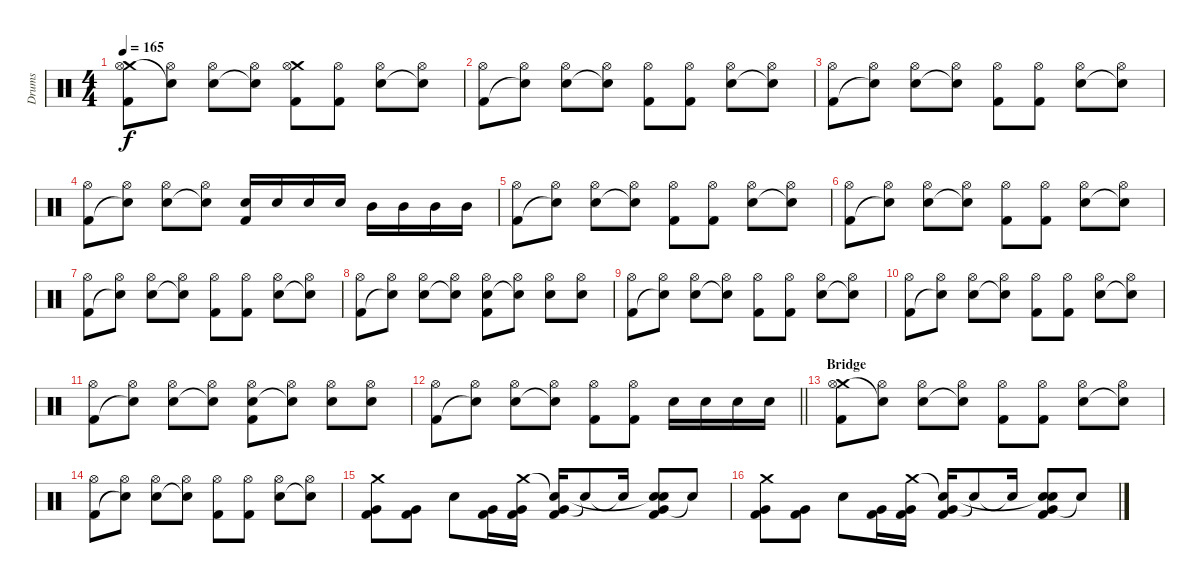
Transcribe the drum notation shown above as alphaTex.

\track ("Drums" "Drums") {instrument percussion}
\staff {score}
\articulation defaults
\ts (4 4)
\tempo 165
\clef neutral
\ks c
("Crash medium (hit)" "Hi-Hat (open)" "Kick (hit) 2").8{dy f} ("Hi-Hat (open)" "Snare (hit)"{t}).8 ("Hi-Hat (open)" "Electric Snare (hit)").8 ("Hi-Hat (open)" "Snare (hit)"{t}).8 ("Crash medium (hit)" "Hi-Hat (open)" "Kick (hit) 2").8 ("Hi-Hat (open)" "Kick (hit) 2").8 ("Hi-Hat (open)" "Electric Snare (hit)").8 ("Hi-Hat (open)" "Snare (hit)"{t}).8 |
("Hi-Hat (open)" "Kick (hit) 2").8 ("Hi-Hat (open)" "Snare (hit)"{t}).8 ("Hi-Hat (open)" "Electric Snare (hit)").8 ("Hi-Hat (open)" "Snare (hit)"{t}).8 ("Hi-Hat (open)" "Kick (hit) 2").8 ("Hi-Hat (open)" "Kick (hit) 2").8 ("Hi-Hat (open)" "Electric Snare (hit)").8 ("Hi-Hat (open)" "Snare (hit)"{t}).8 |
("Hi-Hat (open)" "Kick (hit) 2").8 ("Hi-Hat (open)" "Snare (hit)"{t}).8 ("Hi-Hat (open)" "Electric Snare (hit)").8 ("Hi-Hat (open)" "Snare (hit)"{t}).8 ("Hi-Hat (open)" "Kick (hit) 2").8 ("Hi-Hat (open)" "Kick (hit) 2").8 ("Hi-Hat (open)" "Electric Snare (hit)").8 ("Hi-Hat (open)" "Snare (hit)"{t}).8 |
("Hi-Hat (open)" "Kick (hit) 2").8 ("Hi-Hat (open)" "Snare (hit)"{t}).8 ("Hi-Hat (open)" "Electric Snare (hit)").8 ("Hi-Hat (open)" "Snare (hit)"{t}).8 ("Electric Snare (hit)" "Kick (hit) 2").16 "Electric Snare (hit)".16 "Electric Snare (hit)".16 "Electric Snare (hit)".16 "Mid Tom (hit)".16 "Mid Tom (hit)".16 "Mid Tom (hit)".16 "Mid Tom (hit)".16 |
("Hi-Hat (open)" "Kick (hit) 2").8 ("Hi-Hat (open)" "Snare (hit)"{t}).8 ("Hi-Hat (open)" "Electric Snare (hit)").8 ("Hi-Hat (open)" "Snare (hit)"{t}).8 ("Hi-Hat (open)" "Kick (hit) 2").8 ("Hi-Hat (open)" "Kick (hit) 2").8 ("Hi-Hat (open)" "Electric Snare (hit)").8 ("Hi-Hat (open)" "Snare (hit)"{t}).8 |
("Hi-Hat (open)" "Kick (hit) 2").8 ("Hi-Hat (open)" "Snare (hit)"{t}).8 ("Hi-Hat (open)" "Electric Snare (hit)").8 ("Hi-Hat (open)" "Snare (hit)"{t}).8 ("Hi-Hat (open)" "Kick (hit) 2").8 ("Hi-Hat (open)" "Kick (hit) 2").8 ("Hi-Hat (open)" "Electric Snare (hit)").8 ("Hi-Hat (open)" "Snare (hit)"{t}).8 |
("Hi-Hat (open)" "Kick (hit) 2").8 ("Hi-Hat (open)" "Snare (hit)"{t}).8 ("Hi-Hat (open)" "Electric Snare (hit)").8 ("Hi-Hat (open)" "Snare (hit)"{t}).8 ("Hi-Hat (open)" "Kick (hit) 2").8 ("Hi-Hat (open)" "Kick (hit) 2").8 ("Hi-Hat (open)" "Electric Snare (hit)").8 ("Hi-Hat (open)" "Snare (hit)"{t}).8 |
("Hi-Hat (open)" "Kick (hit) 2").8 ("Hi-Hat (open)" "Snare (hit)"{t}).8 ("Hi-Hat (open)" "Electric Snare (hit)").8 ("Hi-Hat (open)" "Snare (hit)"{t}).8 ("Hi-Hat (open)" "Electric Snare (hit)" "Kick (hit) 2").8 ("Hi-Hat (open)" "Electric Snare (hit)"{t}).8 ("Hi-Hat (open)" "Electric Snare (hit)").8 ("Hi-Hat (open)" "Electric Snare (hit)").8 |
("Hi-Hat (open)" "Kick (hit) 2").8 ("Hi-Hat (open)" "Snare (hit)"{t}).8 ("Hi-Hat (open)" "Electric Snare (hit)").8 ("Hi-Hat (open)" "Snare (hit)"{t}).8 ("Hi-Hat (open)" "Kick (hit) 2").8 ("Hi-Hat (open)" "Kick (hit) 2").8 ("Hi-Hat (open)" "Electric Snare (hit)").8 ("Hi-Hat (open)" "Snare (hit)"{t}).8 |
("Hi-Hat (open)" "Kick (hit) 2").8 ("Hi-Hat (open)" "Snare (hit)"{t}).8 ("Hi-Hat (open)" "Electric Snare (hit)").8 ("Hi-Hat (open)" "Snare (hit)"{t}).8 ("Hi-Hat (open)" "Kick (hit) 2").8 ("Hi-Hat (open)" "Kick (hit) 2").8 ("Hi-Hat (open)" "Electric Snare (hit)").8 ("Hi-Hat (open)" "Snare (hit)"{t}).8 |
("Hi-Hat (open)" "Kick (hit) 2").8 ("Hi-Hat (open)" "Snare (hit)"{t}).8 ("Hi-Hat (open)" "Electric Snare (hit)").8 ("Hi-Hat (open)" "Snare (hit)"{t}).8 ("Hi-Hat (open)" "Electric Snare (hit)" "Kick (hit) 2").8 ("Hi-Hat (open)" "Electric Snare (hit)"{t}).8 ("Hi-Hat (open)" "Electric Snare (hit)").8 ("Hi-Hat (open)" "Electric Snare (hit)").8 |
\barLineRight lightlight
("Hi-Hat (open)" "Kick (hit) 2").8 ("Hi-Hat (open)" "Snare (hit)"{t}).8 ("Hi-Hat (open)" "Electric Snare (hit)").8 ("Hi-Hat (open)" "Snare (hit)"{t}).8 ("Hi-Hat (open)" "Kick (hit) 2").8 ("Hi-Hat (open)" "Kick (hit) 2").8 "Electric Snare (hit)".16 "Electric Snare (hit)".16 "Electric Snare (hit)".16 "Electric Snare (hit)".16 |
\section ("" "Bridge")
("Crash medium (hit)" "Hi-Hat (open)" "Kick (hit) 2").8 ("Hi-Hat (open)" "Snare (hit)"{t}).8 ("Hi-Hat (open)" "Electric Snare (hit)").8 ("Hi-Hat (open)" "Snare (hit)"{t}).8 ("Hi-Hat (open)" "Kick (hit) 2").8 ("Hi-Hat (open)" "Kick (hit) 2").8 ("Hi-Hat (open)" "Electric Snare (hit)").8 ("Hi-Hat (open)" "Snare (hit)"{t}).8 |
("Hi-Hat (open)" "Kick (hit) 2").8 ("Hi-Hat (open)" "Snare (hit)"{t}).8 ("Hi-Hat (open)" "Electric Snare (hit)").8 ("Hi-Hat (open)" "Snare (hit)"{t}).8 ("Hi-Hat (open)" "Kick (hit) 2").8 ("Hi-Hat (open)" "Kick (hit) 2").8 ("Hi-Hat (open)" "Electric Snare (hit)").8 ("Hi-Hat (open)" "Snare (hit)"{t}).8 |
("Very Low Tom (hit)" "Crash medium (hit)" "Kick (hit) 2").8 ("Very Low Tom (hit)" "Kick (hit) 2").8 "Electric Snare (hit)".8 ("Very Low Tom (hit)" "Kick (hit) 2").16 ("Very Low Tom (hit)" "Crash medium (hit)" "Kick (hit) 2").16 ("Very Low Tom (hit)" "Snare (hit)"{t} "Kick (hit) 2").16 "Snare (hit)"{t}.8 "Snare (hit)"{t}.16 ("Very Low Tom (hit)" "Snare (hit)"{t} "Electric Snare (hit)" "Kick (hit) 2").8 "Snare (hit)"{t}.8 |
("Very Low Tom (hit)" "Crash medium (hit)" "Kick (hit) 2").8 ("Very Low Tom (hit)" "Kick (hit) 2").8 "Electric Snare (hit)".8 ("Very Low Tom (hit)" "Kick (hit) 2").16 ("Very Low Tom (hit)" "Crash medium (hit)" "Kick (hit) 2").16 ("Very Low Tom (hit)" "Snare (hit)"{t} "Kick (hit) 2").16 "Snare (hit)"{t}.8 "Snare (hit)"{t}.16 ("Very Low Tom (hit)" "Snare (hit)"{t} "Electric Snare (hit)" "Kick (hit) 2").8 "Snare (hit)"{t}.8
